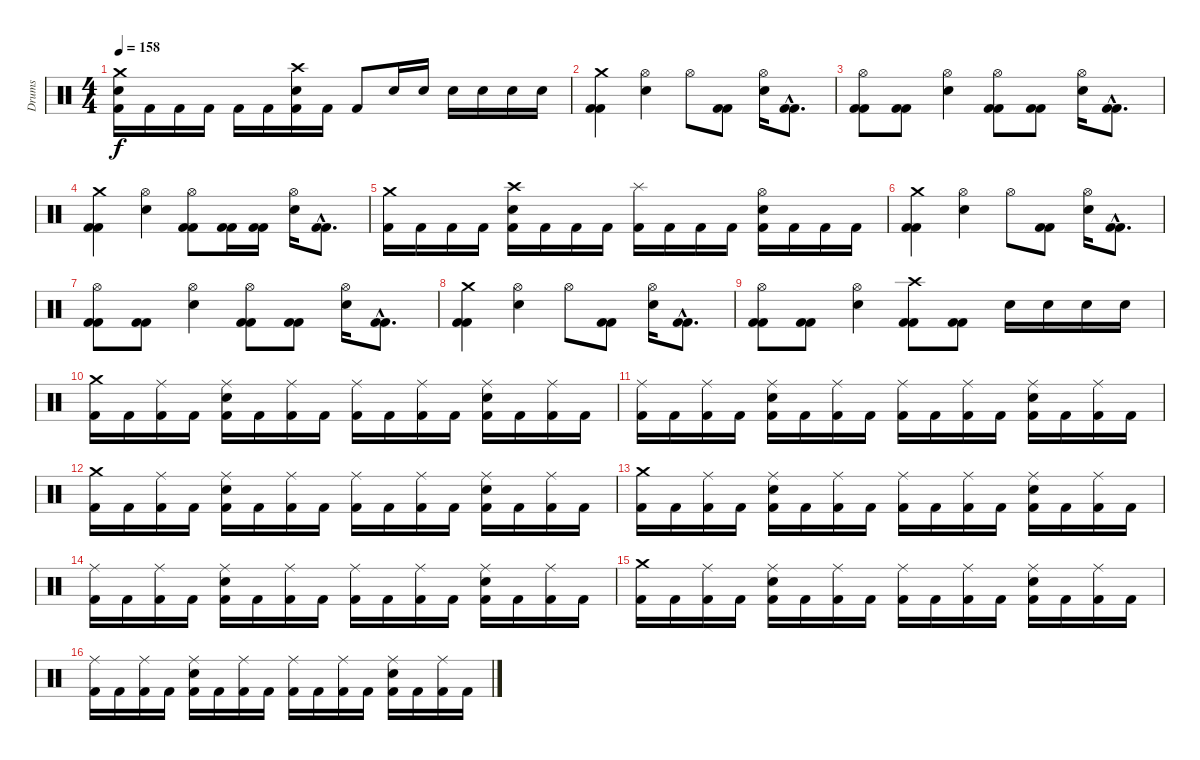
\track ("Drums" "Drums") {instrument percussion}
\staff {score}
\articulation defaults
\ts (4 4)
\tempo 158
\clef neutral
\ks c
("Crash medium (hit)" "Electric Snare (hit)" "Kick (hit) 2").16{dy f} "Kick (hit) 2".16 "Kick (hit) 2".16 "Kick (hit) 2".16 "Kick (hit) 2".16 "Kick (hit) 2".16 ("Crash high (hit)" "Electric Snare (hit)" "Kick (hit) 2").16 "Kick (hit) 2".16 "Kick (hit) 2".8 "Electric Snare (hit)".16 "Electric Snare (hit)".16 "Electric Snare (hit)".16 "Electric Snare (hit)".16 "Electric Snare (hit)".16 "Electric Snare (hit)".16 |
("Crash medium (hit)" "Kick (hit) 2" "Kick (hit) 2").4 ("Hi-Hat (open)" "Electric Snare (hit)").4 "Hi-Hat (open)".8 ("Kick (hit) 2" "Kick (hit) 2").8 ("Hi-Hat (open)" "Electric Snare (hit)").16 ("Kick (hit) 2"{hac} "Kick (hit) 2"{hac}).8{d} |
("Hi-Hat (open)" "Kick (hit) 2" "Kick (hit) 2").8 ("Kick (hit) 2" "Kick (hit) 2").8 ("Hi-Hat (open)" "Electric Snare (hit)").4 ("Hi-Hat (open)" "Kick (hit) 2" "Kick (hit) 2").8 ("Kick (hit) 2" "Kick (hit) 2").8 ("Hi-Hat (open)" "Electric Snare (hit)").16 ("Kick (hit) 2"{hac} "Kick (hit) 2"{hac}).8{d} |
("Crash medium (hit)" "Kick (hit) 2" "Kick (hit) 2").4 ("Hi-Hat (open)" "Electric Snare (hit)").4 ("Hi-Hat (open)" "Kick (hit) 2" "Kick (hit) 2").8 ("Kick (hit) 2" "Kick (hit) 2").16 ("Kick (hit) 2" "Kick (hit) 2").16 ("Hi-Hat (open)" "Electric Snare (hit)").16 ("Kick (hit) 2"{hac} "Kick (hit) 2"{hac}).8{d} |
("Crash medium (hit)" "Kick (hit) 2").16 "Kick (hit) 2".16 "Kick (hit) 2".16 "Kick (hit) 2".16 ("Crash high (hit)" "Electric Snare (hit)" "Kick (hit) 2").16 "Kick (hit) 2".16 "Kick (hit) 2".16 "Kick (hit) 2".16 ("Splash (hit)" "Kick (hit) 2").16 "Kick (hit) 2".16 "Kick (hit) 2".16 "Kick (hit) 2".16 ("Hi-Hat (open)" "Electric Snare (hit)" "Kick (hit) 2").16 "Kick (hit) 2".16 "Kick (hit) 2".16 "Kick (hit) 2".16 |
("Crash medium (hit)" "Kick (hit) 2" "Kick (hit) 2").4 ("Hi-Hat (open)" "Electric Snare (hit)").4 "Hi-Hat (open)".8 ("Kick (hit) 2" "Kick (hit) 2").8 ("Hi-Hat (open)" "Electric Snare (hit)").16 ("Kick (hit) 2"{hac} "Kick (hit) 2"{hac}).8{d} |
("Hi-Hat (open)" "Kick (hit) 2" "Kick (hit) 2").8 ("Kick (hit) 2" "Kick (hit) 2").8 ("Hi-Hat (open)" "Electric Snare (hit)").4 ("Hi-Hat (open)" "Kick (hit) 2" "Kick (hit) 2").8 ("Kick (hit) 2" "Kick (hit) 2").8 ("Hi-Hat (open)" "Electric Snare (hit)").16 ("Kick (hit) 2"{hac} "Kick (hit) 2"{hac}).8{d} |
("Crash medium (hit)" "Kick (hit) 2" "Kick (hit) 2").4 ("Hi-Hat (open)" "Electric Snare (hit)").4 "Hi-Hat (open)".8 ("Kick (hit) 2" "Kick (hit) 2").8 ("Hi-Hat (open)" "Electric Snare (hit)").16 ("Kick (hit) 2"{hac} "Kick (hit) 2"{hac}).8{d} |
("Hi-Hat (open)" "Kick (hit) 2" "Kick (hit) 2").8 ("Kick (hit) 2" "Kick (hit) 2").8 ("Hi-Hat (open)" "Electric Snare (hit)").4 ("Crash high (hit)" "Kick (hit) 2" "Kick (hit) 2").8 ("Kick (hit) 2" "Kick (hit) 2").8 "Electric Snare (hit)".16 "Electric Snare (hit)".16 "Electric Snare (hit)".16 "Electric Snare (hit)".16 |
("Crash medium (hit)" "Kick (hit) 2").16 "Kick (hit) 2".16 ("Ride (middle)" "Kick (hit) 2").16 "Kick (hit) 2".16 ("Ride (middle)" "Electric Snare (hit)" "Kick (hit) 2").16 "Kick (hit) 2".16 ("Ride (middle)" "Kick (hit) 2").16 "Kick (hit) 2".16 ("Ride (middle)" "Kick (hit) 2").16 "Kick (hit) 2".16 ("Ride (middle)" "Kick (hit) 2").16 "Kick (hit) 2".16 ("Ride (middle)" "Electric Snare (hit)" "Kick (hit) 2").16 "Kick (hit) 2".16 ("Ride (middle)" "Kick (hit) 2").16 "Kick (hit) 2".16 |
("Ride (middle)" "Kick (hit) 2").16 "Kick (hit) 2".16 ("Ride (middle)" "Kick (hit) 2").16 "Kick (hit) 2".16 ("Ride (middle)" "Electric Snare (hit)" "Kick (hit) 2").16 "Kick (hit) 2".16 ("Ride (middle)" "Kick (hit) 2").16 "Kick (hit) 2".16 ("Ride (middle)" "Kick (hit) 2").16 "Kick (hit) 2".16 ("Ride (middle)" "Kick (hit) 2").16 "Kick (hit) 2".16 ("Ride (middle)" "Electric Snare (hit)" "Kick (hit) 2").16 "Kick (hit) 2".16 ("Ride (middle)" "Kick (hit) 2").16 "Kick (hit) 2".16 |
("Crash medium (hit)" "Kick (hit) 2").16 "Kick (hit) 2".16 ("Ride (middle)" "Kick (hit) 2").16 "Kick (hit) 2".16 ("Ride (middle)" "Electric Snare (hit)" "Kick (hit) 2").16 "Kick (hit) 2".16 ("Ride (middle)" "Kick (hit) 2").16 "Kick (hit) 2".16 ("Ride (middle)" "Kick (hit) 2").16 "Kick (hit) 2".16 ("Ride (middle)" "Kick (hit) 2").16 "Kick (hit) 2".16 ("Ride (middle)" "Electric Snare (hit)" "Kick (hit) 2").16 "Kick (hit) 2".16 ("Ride (middle)" "Kick (hit) 2").16 "Kick (hit) 2".16 |
("Crash medium (hit)" "Kick (hit) 2").16 "Kick (hit) 2".16 ("Ride (middle)" "Kick (hit) 2").16 "Kick (hit) 2".16 ("Ride (middle)" "Electric Snare (hit)" "Kick (hit) 2").16 "Kick (hit) 2".16 ("Ride (middle)" "Kick (hit) 2").16 "Kick (hit) 2".16 ("Ride (middle)" "Kick (hit) 2").16 "Kick (hit) 2".16 ("Ride (middle)" "Kick (hit) 2").16 "Kick (hit) 2".16 ("Ride (middle)" "Electric Snare (hit)" "Kick (hit) 2").16 "Kick (hit) 2".16 ("Ride (middle)" "Kick (hit) 2").16 "Kick (hit) 2".16 |
("Ride (middle)" "Kick (hit) 2").16 "Kick (hit) 2".16 ("Ride (middle)" "Kick (hit) 2").16 "Kick (hit) 2".16 ("Ride (middle)" "Electric Snare (hit)" "Kick (hit) 2").16 "Kick (hit) 2".16 ("Ride (middle)" "Kick (hit) 2").16 "Kick (hit) 2".16 ("Ride (middle)" "Kick (hit) 2").16 "Kick (hit) 2".16 ("Ride (middle)" "Kick (hit) 2").16 "Kick (hit) 2".16 ("Ride (middle)" "Electric Snare (hit)" "Kick (hit) 2").16 "Kick (hit) 2".16 ("Ride (middle)" "Kick (hit) 2").16 "Kick (hit) 2".16 |
("Crash medium (hit)" "Kick (hit) 2").16 "Kick (hit) 2".16 ("Ride (middle)" "Kick (hit) 2").16 "Kick (hit) 2".16 ("Ride (middle)" "Electric Snare (hit)" "Kick (hit) 2").16 "Kick (hit) 2".16 ("Ride (middle)" "Kick (hit) 2").16 "Kick (hit) 2".16 ("Ride (middle)" "Kick (hit) 2").16 "Kick (hit) 2".16 ("Ride (middle)" "Kick (hit) 2").16 "Kick (hit) 2".16 ("Ride (middle)" "Electric Snare (hit)" "Kick (hit) 2").16 "Kick (hit) 2".16 ("Ride (middle)" "Kick (hit) 2").16 "Kick (hit) 2".16 |
("Ride (middle)" "Kick (hit) 2").16 "Kick (hit) 2".16 ("Ride (middle)" "Kick (hit) 2").16 "Kick (hit) 2".16 ("Ride (middle)" "Electric Snare (hit)" "Kick (hit) 2").16 "Kick (hit) 2".16 ("Ride (middle)" "Kick (hit) 2").16 "Kick (hit) 2".16 ("Ride (middle)" "Kick (hit) 2").16 "Kick (hit) 2".16 ("Ride (middle)" "Kick (hit) 2").16 "Kick (hit) 2".16 ("Ride (middle)" "Electric Snare (hit)" "Kick (hit) 2").16 "Kick (hit) 2".16 ("Ride (middle)" "Kick (hit) 2").16 "Kick (hit) 2".16
